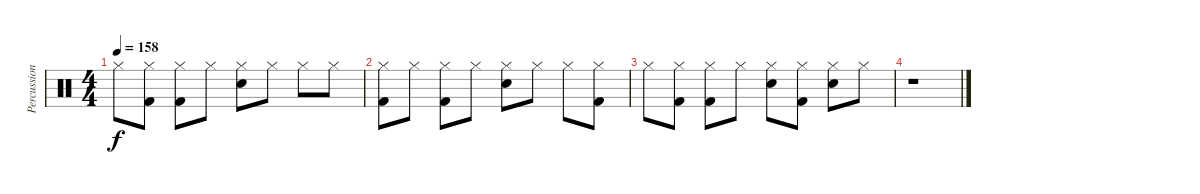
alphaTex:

\track ("Percussion" "Percussion") {instrument percussion}
\staff {score}
\articulation defaults
\ts (4 4)
\tempo 158
\clef neutral
\ks c "Hi-Hat (closed)".8{dy f}
("Hi-Hat (closed)" "Kick (hit) 2").8 ("Hi-Hat (closed)" "Kick (hit) 2").8 "Hi-Hat (closed)".8 ("Hi-Hat (closed)" "Electric Snare (hit)").8 "Hi-Hat (closed)".8 "Hi-Hat (closed)".8 "Hi-Hat (closed)".8 |
("Hi-Hat (closed)" "Kick (hit) 2").8 "Hi-Hat (closed)".8 ("Hi-Hat (closed)" "Kick (hit) 2").8 "Hi-Hat (closed)".8 ("Hi-Hat (closed)" "Snare (hit) 2").8 "Hi-Hat (closed)".8 "Hi-Hat (closed)".8 ("Hi-Hat (closed)" "Kick (hit) 2").8 |
"Hi-Hat (closed)".8 ("Hi-Hat (closed)" "Kick (hit) 2").8 ("Hi-Hat (closed)" "Kick (hit) 2").8 "Hi-Hat (closed)".8 ("Hi-Hat (closed)" "Electric Snare (hit)").8 ("Hi-Hat (closed)" "Kick (hit) 2").8 ("Hi-Hat (closed)" "Electric Snare (hit)").8 "Hi-Hat (closed)".8 |
r.1
